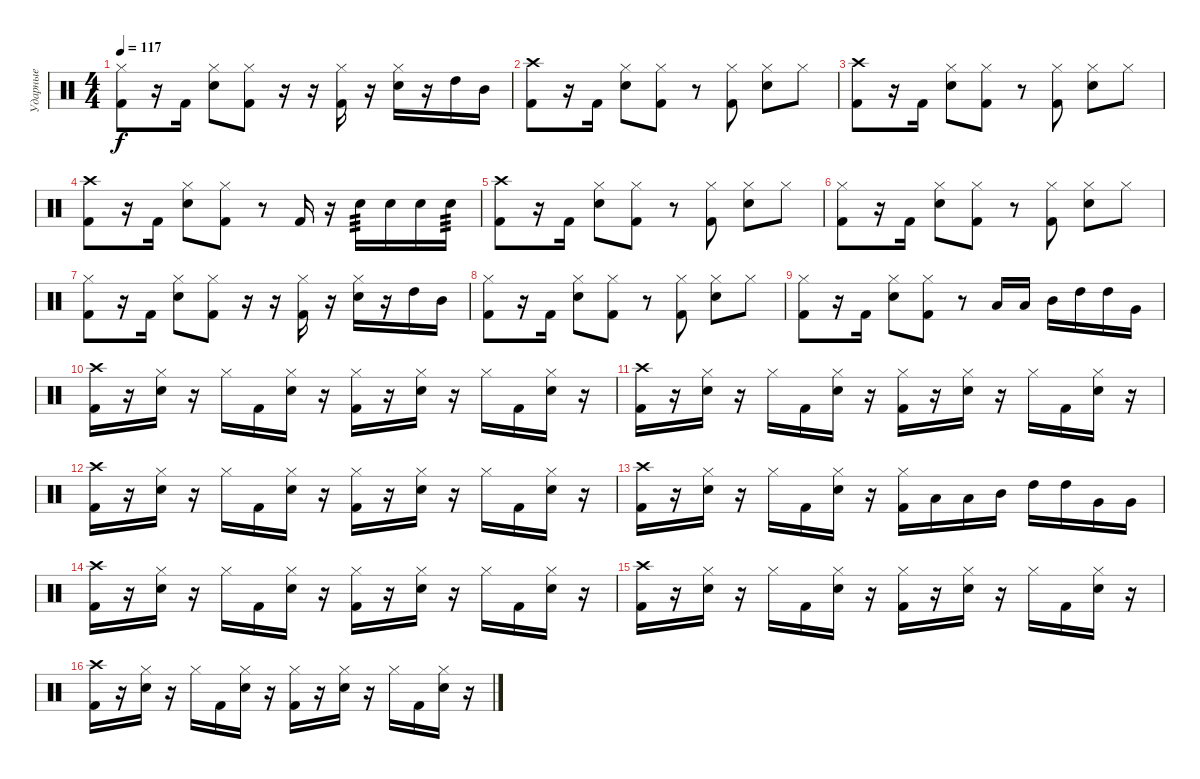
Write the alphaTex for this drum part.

\track ("Ударные" "Ударные") {instrument percussion}
\staff {score}
\articulation defaults
\ts (4 4)
\tempo 117
\clef neutral
\ks c
("Kick (hit) 2" "Hi-Hat (closed)").8{dy f} r.16 "Kick (hit) 2".16 ("Electric Snare (hit)" "Hi-Hat (closed)").8 ("Kick (hit) 2" "Hi-Hat (closed)").8 r.16 r.16 ("Kick (hit) 2" "Hi-Hat (closed)").16 r.16 ("Electric Snare (hit)" "Hi-Hat (closed)").16 r.16 "High Tom (hit)".16 "Mid Tom (hit)".16 |
("Kick (hit) 2" "Crash high (hit)").8 r.16 "Kick (hit) 2".16 ("Electric Snare (hit)" "Hi-Hat (closed)").8 ("Kick (hit) 2" "Hi-Hat (closed)").8 r.8 ("Kick (hit) 2" "Hi-Hat (closed)").8 ("Electric Snare (hit)" "Hi-Hat (closed)").8 "Hi-Hat (closed)".8 |
("Kick (hit) 2" "Crash high (hit)").8 r.16 "Kick (hit) 2".16 ("Electric Snare (hit)" "Hi-Hat (closed)").8 ("Kick (hit) 2" "Hi-Hat (closed)").8 r.8 ("Kick (hit) 2" "Hi-Hat (closed)").8 ("Electric Snare (hit)" "Hi-Hat (closed)").8 "Hi-Hat (closed)".8 |
("Kick (hit) 2" "Crash high (hit)").8 r.16 "Kick (hit) 2".16 ("Electric Snare (hit)" "Hi-Hat (closed)").8 ("Kick (hit) 2" "Hi-Hat (closed)").8 r.8 "Kick (hit) 2".16 r.16 "Electric Snare (hit)".16{tp 3} "Electric Snare (hit)".16 "Electric Snare (hit)".16 "Electric Snare (hit)".16{tp 3} |
("Kick (hit) 2" "Crash high (hit)").8 r.16 "Kick (hit) 2".16 ("Electric Snare (hit)" "Hi-Hat (closed)").8 ("Kick (hit) 2" "Hi-Hat (closed)").8 r.8 ("Kick (hit) 2" "Hi-Hat (closed)").8 ("Electric Snare (hit)" "Hi-Hat (closed)").8 "Hi-Hat (closed)".8 |
("Kick (hit) 2" "Hi-Hat (closed)").8 r.16 "Kick (hit) 2".16 ("Electric Snare (hit)" "Hi-Hat (closed)").8 ("Kick (hit) 2" "Hi-Hat (closed)").8 r.8 ("Kick (hit) 2" "Hi-Hat (closed)").8 ("Electric Snare (hit)" "Hi-Hat (closed)").8 "Hi-Hat (closed)".8 |
("Kick (hit) 2" "Hi-Hat (closed)").8 r.16 "Kick (hit) 2".16 ("Electric Snare (hit)" "Hi-Hat (closed)").8 ("Kick (hit) 2" "Hi-Hat (closed)").8 r.16 r.16 ("Kick (hit) 2" "Hi-Hat (closed)").16 r.16 ("Electric Snare (hit)" "Hi-Hat (closed)").16 r.16 "High Tom (hit)".16 "Mid Tom (hit)".16 |
("Kick (hit) 2" "Hi-Hat (closed)").8 r.16 "Kick (hit) 2".16 ("Electric Snare (hit)" "Hi-Hat (closed)").8 ("Kick (hit) 2" "Hi-Hat (closed)").8 r.8 ("Kick (hit) 2" "Hi-Hat (closed)").8 ("Electric Snare (hit)" "Hi-Hat (closed)").8 "Hi-Hat (closed)".8 |
("Kick (hit) 2" "Hi-Hat (closed)").8 r.16 "Kick (hit) 2".16 ("Electric Snare (hit)" "Hi-Hat (closed)").8 ("Kick (hit) 2" "Hi-Hat (closed)").8 r.8 "Low Tom (hit)".16 "Low Tom (hit)".16 "Mid Tom (hit)".16 "High Tom (hit)".16 "High Tom (hit)".16 "Very Low Tom (hit)".16 |
("Kick (hit) 2" "Crash high (hit)").16 r.16 ("Electric Snare (hit)" "Hi-Hat (closed)").16 r.16 "Hi-Hat (closed)".16 "Kick (hit) 2".16 ("Electric Snare (hit)" "Hi-Hat (closed)").16 r.16 ("Kick (hit) 2" "Hi-Hat (closed)").16 r.16 ("Electric Snare (hit)" "Hi-Hat (closed)").16 r.16 "Hi-Hat (closed)".16 "Kick (hit) 2".16 ("Electric Snare (hit)" "Hi-Hat (closed)").16 r.16 |
("Kick (hit) 2" "Crash high (hit)").16 r.16 ("Electric Snare (hit)" "Hi-Hat (closed)").16 r.16 "Hi-Hat (closed)".16 "Kick (hit) 2".16 ("Electric Snare (hit)" "Hi-Hat (closed)").16 r.16 ("Kick (hit) 2" "Hi-Hat (closed)").16 r.16 ("Electric Snare (hit)" "Hi-Hat (closed)").16 r.16 "Hi-Hat (closed)".16 "Kick (hit) 2".16 ("Electric Snare (hit)" "Hi-Hat (closed)").16 r.16 |
("Kick (hit) 2" "Crash high (hit)").16 r.16 ("Electric Snare (hit)" "Hi-Hat (closed)").16 r.16 "Hi-Hat (closed)".16 "Kick (hit) 2".16 ("Electric Snare (hit)" "Hi-Hat (closed)").16 r.16 ("Kick (hit) 2" "Hi-Hat (closed)").16 r.16 ("Electric Snare (hit)" "Hi-Hat (closed)").16 r.16 "Hi-Hat (closed)".16 "Kick (hit) 2".16 ("Electric Snare (hit)" "Hi-Hat (closed)").16 r.16 |
("Kick (hit) 2" "Crash high (hit)").16 r.16 ("Electric Snare (hit)" "Hi-Hat (closed)").16 r.16 "Hi-Hat (closed)".16 "Kick (hit) 2".16 ("Electric Snare (hit)" "Hi-Hat (closed)").16 r.16 ("Kick (hit) 2" "Hi-Hat (closed)").16 "Low Tom (hit)".16 "Low Tom (hit)".16 "Mid Tom (hit)".16 "High Tom (hit)".16 "High Tom (hit)".16 "Very Low Tom (hit)".16 "Very Low Tom (hit)".16 |
("Kick (hit) 2" "Crash high (hit)").16 r.16 ("Electric Snare (hit)" "Hi-Hat (closed)").16 r.16 "Hi-Hat (closed)".16 "Kick (hit) 2".16 ("Electric Snare (hit)" "Hi-Hat (closed)").16 r.16 ("Kick (hit) 2" "Hi-Hat (closed)").16 r.16 ("Electric Snare (hit)" "Hi-Hat (closed)").16 r.16 "Hi-Hat (closed)".16 "Kick (hit) 2".16 ("Electric Snare (hit)" "Hi-Hat (closed)").16 r.16 |
("Kick (hit) 2" "Crash high (hit)").16 r.16 ("Electric Snare (hit)" "Hi-Hat (closed)").16 r.16 "Hi-Hat (closed)".16 "Kick (hit) 2".16 ("Electric Snare (hit)" "Hi-Hat (closed)").16 r.16 ("Kick (hit) 2" "Hi-Hat (closed)").16 r.16 ("Electric Snare (hit)" "Hi-Hat (closed)").16 r.16 "Hi-Hat (closed)".16 "Kick (hit) 2".16 ("Electric Snare (hit)" "Hi-Hat (closed)").16 r.16 |
("Kick (hit) 2" "Crash high (hit)").16 r.16 ("Electric Snare (hit)" "Hi-Hat (closed)").16 r.16 "Hi-Hat (closed)".16 "Kick (hit) 2".16 ("Electric Snare (hit)" "Hi-Hat (closed)").16 r.16 ("Kick (hit) 2" "Hi-Hat (closed)").16 r.16 ("Electric Snare (hit)" "Hi-Hat (closed)").16 r.16 "Hi-Hat (closed)".16 "Kick (hit) 2".16 ("Electric Snare (hit)" "Hi-Hat (closed)").16 r.16
